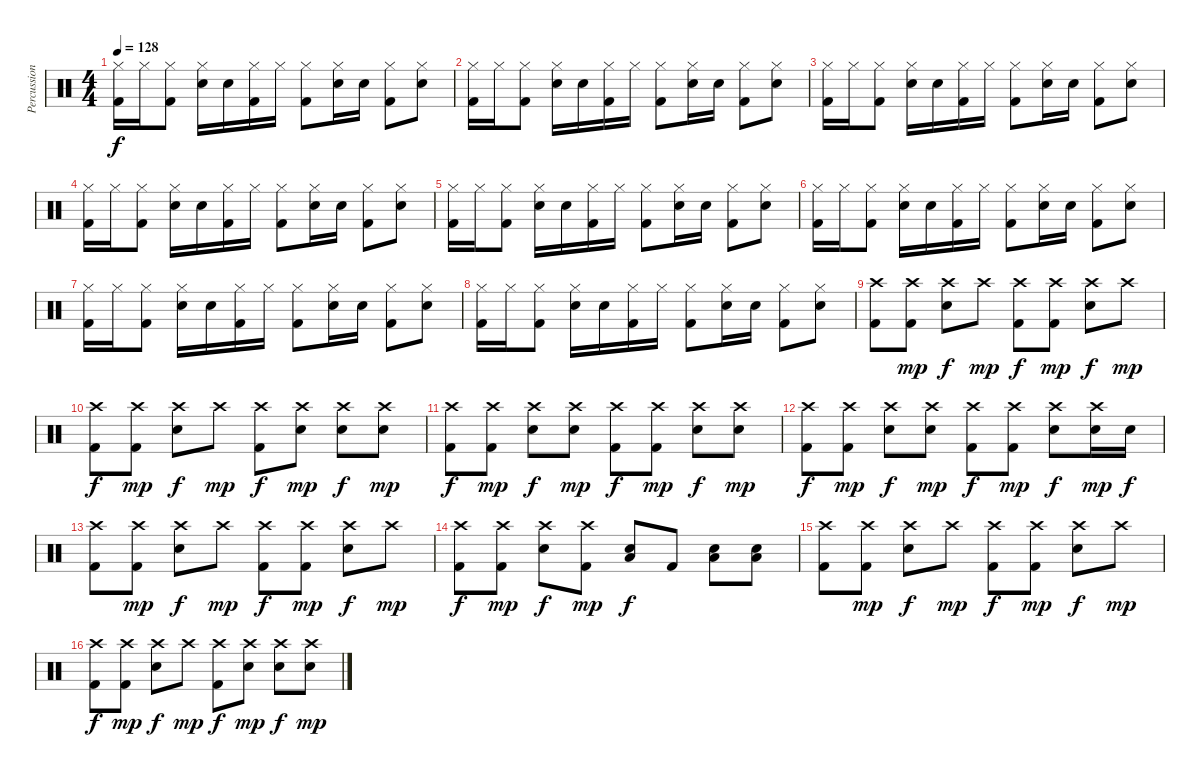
\track ("Percussion" "Percussion") {instrument percussion}
\staff {score}
\articulation defaults
\ts (4 4)
\tempo 128
\clef neutral
\ks c
("Hi-Hat (closed)" "Kick (hit) 2").16{dy f} "Hi-Hat (closed)".16 ("Hi-Hat (closed)" "Kick (hit) 2").8 ("Hi-Hat (closed)" "Snare (hit) 2").16 "Snare (hit) 2".16 ("Hi-Hat (closed)" "Kick (hit) 2").16 "Hi-Hat (closed)".16 ("Hi-Hat (closed)" "Kick (hit) 2").8 ("Hi-Hat (closed)" "Snare (hit) 2").16 "Snare (hit) 2".16 ("Hi-Hat (closed)" "Kick (hit) 2").8 ("Hi-Hat (closed)" "Snare (hit) 2").8 |
("Hi-Hat (closed)" "Kick (hit) 2").16 "Hi-Hat (closed)".16 ("Hi-Hat (closed)" "Kick (hit) 2").8 ("Hi-Hat (closed)" "Snare (hit) 2").16 "Snare (hit) 2".16 ("Hi-Hat (closed)" "Kick (hit) 2").16 "Hi-Hat (closed)".16 ("Hi-Hat (closed)" "Kick (hit) 2").8 ("Hi-Hat (closed)" "Snare (hit) 2").16 "Snare (hit) 2".16 ("Hi-Hat (closed)" "Kick (hit) 2").8 ("Hi-Hat (closed)" "Snare (hit) 2").8 |
("Hi-Hat (closed)" "Kick (hit) 2").16 "Hi-Hat (closed)".16 ("Hi-Hat (closed)" "Kick (hit) 2").8 ("Hi-Hat (closed)" "Snare (hit) 2").16 "Snare (hit) 2".16 ("Hi-Hat (closed)" "Kick (hit) 2").16 "Hi-Hat (closed)".16 ("Hi-Hat (closed)" "Kick (hit) 2").8 ("Hi-Hat (closed)" "Snare (hit) 2").16 "Snare (hit) 2".16 ("Hi-Hat (closed)" "Kick (hit) 2").8 ("Hi-Hat (closed)" "Snare (hit) 2").8 |
("Hi-Hat (closed)" "Kick (hit) 2").16 "Hi-Hat (closed)".16 ("Hi-Hat (closed)" "Kick (hit) 2").8 ("Hi-Hat (closed)" "Snare (hit) 2").16 "Snare (hit) 2".16 ("Hi-Hat (closed)" "Kick (hit) 2").16 "Hi-Hat (closed)".16 ("Hi-Hat (closed)" "Kick (hit) 2").8 ("Hi-Hat (closed)" "Snare (hit) 2").16 "Snare (hit) 2".16 ("Hi-Hat (closed)" "Kick (hit) 2").8 ("Hi-Hat (closed)" "Snare (hit) 2").8 |
("Hi-Hat (closed)" "Kick (hit) 2").16 "Hi-Hat (closed)".16 ("Hi-Hat (closed)" "Kick (hit) 2").8 ("Hi-Hat (closed)" "Snare (hit) 2").16 "Snare (hit) 2".16 ("Hi-Hat (closed)" "Kick (hit) 2").16 "Hi-Hat (closed)".16 ("Hi-Hat (closed)" "Kick (hit) 2").8 ("Hi-Hat (closed)" "Snare (hit) 2").16 "Snare (hit) 2".16 ("Hi-Hat (closed)" "Kick (hit) 2").8 ("Hi-Hat (closed)" "Snare (hit) 2").8 |
("Hi-Hat (closed)" "Kick (hit) 2").16 "Hi-Hat (closed)".16 ("Hi-Hat (closed)" "Kick (hit) 2").8 ("Hi-Hat (closed)" "Snare (hit) 2").16 "Snare (hit) 2".16 ("Hi-Hat (closed)" "Kick (hit) 2").16 "Hi-Hat (closed)".16 ("Hi-Hat (closed)" "Kick (hit) 2").8 ("Hi-Hat (closed)" "Snare (hit) 2").16 "Snare (hit) 2".16 ("Hi-Hat (closed)" "Kick (hit) 2").8 ("Hi-Hat (closed)" "Snare (hit) 2").8 |
("Hi-Hat (closed)" "Kick (hit) 2").16 "Hi-Hat (closed)".16 ("Hi-Hat (closed)" "Kick (hit) 2").8 ("Hi-Hat (closed)" "Snare (hit) 2").16 "Snare (hit) 2".16 ("Hi-Hat (closed)" "Kick (hit) 2").16 "Hi-Hat (closed)".16 ("Hi-Hat (closed)" "Kick (hit) 2").8 ("Hi-Hat (closed)" "Snare (hit) 2").16 "Snare (hit) 2".16 ("Hi-Hat (closed)" "Kick (hit) 2").8 ("Hi-Hat (closed)" "Snare (hit) 2").8 |
("Hi-Hat (closed)" "Kick (hit) 2").16 "Hi-Hat (closed)".16 ("Hi-Hat (closed)" "Kick (hit) 2").8 ("Hi-Hat (closed)" "Snare (hit) 2").16 "Snare (hit) 2".16 ("Hi-Hat (closed)" "Kick (hit) 2").16 "Hi-Hat (closed)".16 ("Hi-Hat (closed)" "Kick (hit) 2").8 ("Hi-Hat (closed)" "Snare (hit) 2").16 "Snare (hit) 2".16 ("Hi-Hat (closed)" "Kick (hit) 2").8 ("Hi-Hat (closed)" "Snare (hit) 2").8 |
("Crash high (hit)" "Kick (hit) 2").8 ("Crash high (hit)" "Kick (hit) 2").8{dy mp} ("Crash high (hit)" "Snare (hit) 2").8{dy f} "Crash high (hit)".8{dy mp} ("Crash high (hit)" "Kick (hit) 2").8{dy f} ("Crash high (hit)" "Kick (hit) 2").8{dy mp} ("Crash high (hit)" "Snare (hit) 2").8{dy f} "Crash high (hit)".8{dy mp} |
("Crash high (hit)" "Kick (hit) 2").8{dy f} ("Crash high (hit)" "Kick (hit) 2").8{dy mp} ("Crash high (hit)" "Snare (hit) 2").8{dy f} "Crash high (hit)".8{dy mp} ("Crash high (hit)" "Kick (hit) 2").8{dy f} ("Crash high (hit)" "Snare (hit) 2").8{dy mp} ("Crash high (hit)" "Snare (hit) 2").8{dy f} ("Crash high (hit)" "Snare (hit) 2").8{dy mp} |
("Crash high (hit)" "Kick (hit) 2").8{dy f} ("Crash high (hit)" "Kick (hit) 2").8{dy mp} ("Crash high (hit)" "Snare (hit) 2").8{dy f} ("Crash high (hit)" "Snare (hit) 2").8{dy mp} ("Crash high (hit)" "Kick (hit) 2").8{dy f} ("Crash high (hit)" "Kick (hit) 2").8{dy mp} ("Crash high (hit)" "Snare (hit) 2").8{dy f} ("Crash high (hit)" "Snare (hit) 2").8{dy mp} |
("Crash high (hit)" "Kick (hit) 2").8{dy f} ("Crash high (hit)" "Kick (hit) 2").8{dy mp} ("Crash high (hit)" "Snare (hit) 2").8{dy f} ("Crash high (hit)" "Snare (hit) 2").8{dy mp} ("Crash high (hit)" "Kick (hit) 2").8{dy f} ("Crash high (hit)" "Kick (hit) 2").8{dy mp} ("Crash high (hit)" "Snare (hit) 2").8{dy f} ("Crash high (hit)" "Snare (hit) 2").16{dy mp} "Snare (hit) 2".16{dy f} |
("Crash high (hit)" "Kick (hit) 2").8 ("Crash high (hit)" "Kick (hit) 2").8{dy mp} ("Crash high (hit)" "Snare (hit) 2").8{dy f} "Crash high (hit)".8{dy mp} ("Crash high (hit)" "Kick (hit) 2").8{dy f} ("Crash high (hit)" "Kick (hit) 2").8{dy mp} ("Crash high (hit)" "Snare (hit) 2").8{dy f} "Crash high (hit)".8{dy mp} |
("Crash high (hit)" "Kick (hit) 2").8{dy f} ("Crash high (hit)" "Kick (hit) 2").8{dy mp} ("Crash high (hit)" "Snare (hit) 2").8{dy f} ("Crash high (hit)" "Kick (hit) 2").8{dy mp} ("Low Tom (hit)" "Snare (hit) 2").8{dy f} "Kick (hit) 2".8 ("Low Tom (hit)" "Snare (hit) 2").8 ("Low Tom (hit)" "Snare (hit) 2").8 |
("Crash high (hit)" "Kick (hit) 2").8 ("Crash high (hit)" "Kick (hit) 2").8{dy mp} ("Crash high (hit)" "Snare (hit) 2").8{dy f} "Crash high (hit)".8{dy mp} ("Crash high (hit)" "Kick (hit) 2").8{dy f} ("Crash high (hit)" "Kick (hit) 2").8{dy mp} ("Crash high (hit)" "Snare (hit) 2").8{dy f} "Crash high (hit)".8{dy mp} |
("Crash high (hit)" "Kick (hit) 2").8{dy f} ("Crash high (hit)" "Kick (hit) 2").8{dy mp} ("Crash high (hit)" "Snare (hit) 2").8{dy f} "Crash high (hit)".8{dy mp} ("Crash high (hit)" "Kick (hit) 2").8{dy f} ("Crash high (hit)" "Snare (hit) 2").8{dy mp} ("Crash high (hit)" "Snare (hit) 2").8{dy f} ("Crash high (hit)" "Snare (hit) 2").8{dy mp}
